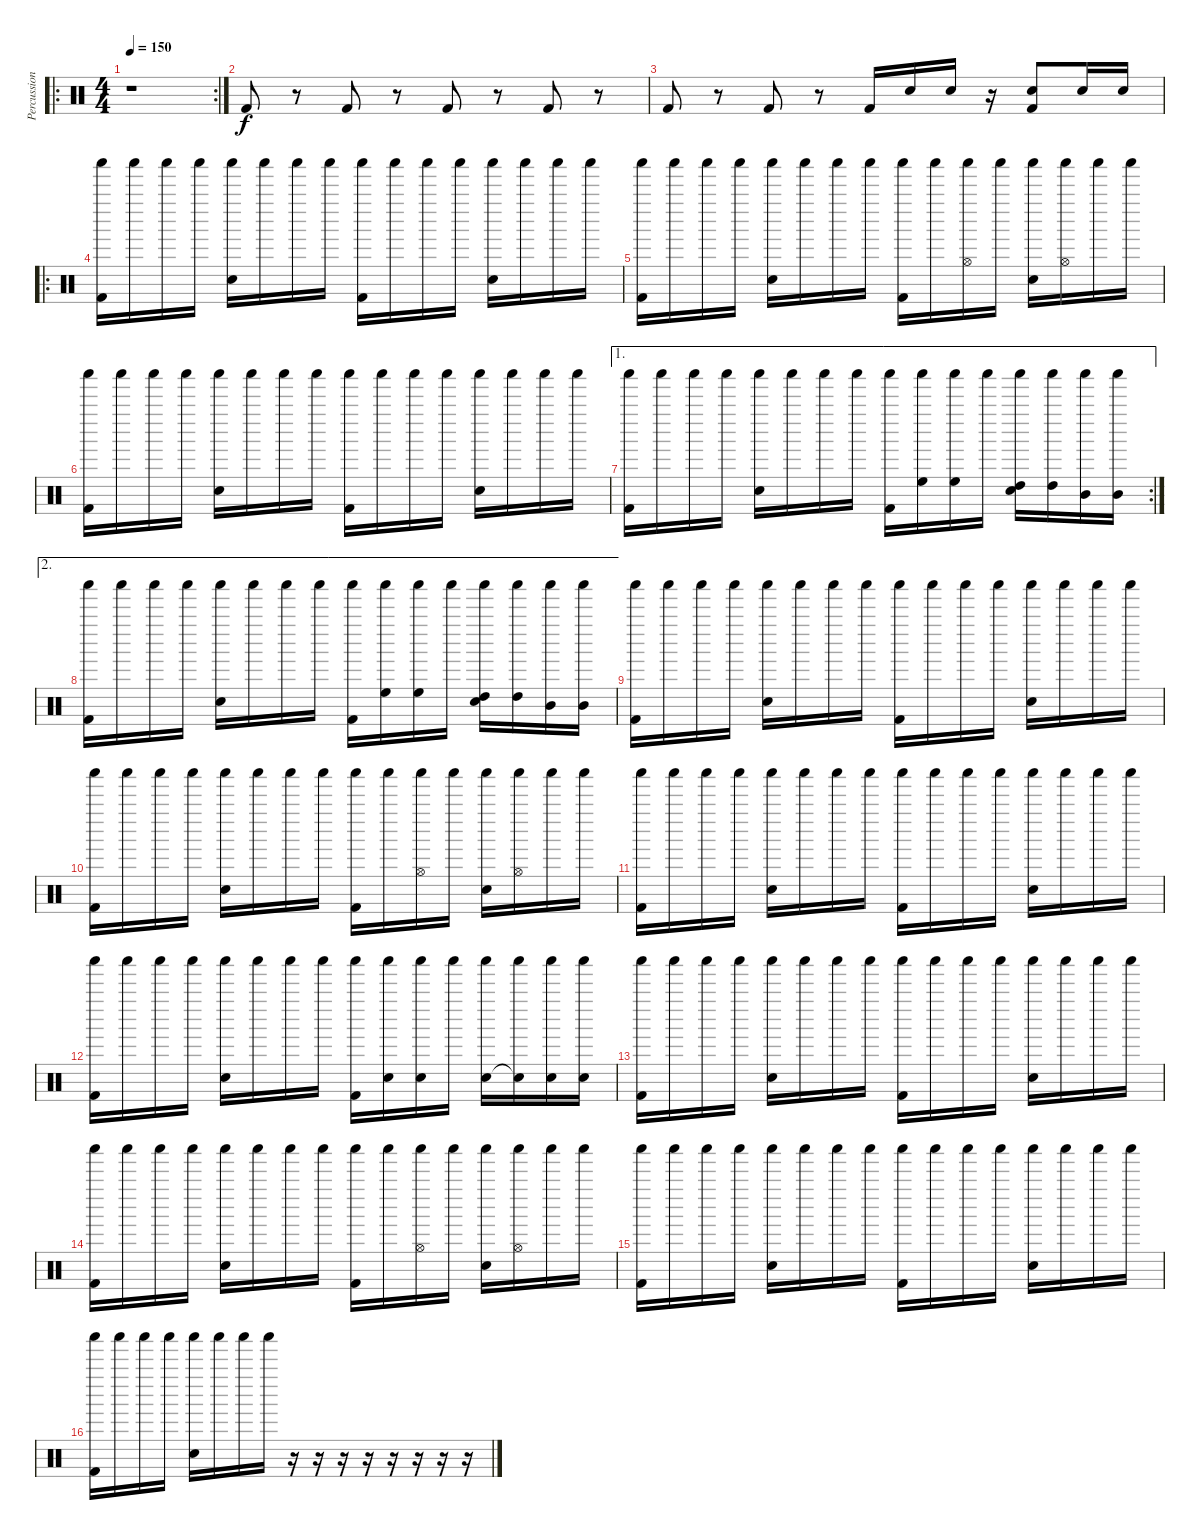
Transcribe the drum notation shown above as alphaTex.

\track ("Percussion" "Percussion") {instrument percussion}
\staff {score}
\articulation defaults
\ro
\rc 2
\ts (4 4)
\tempo 150
\clef neutral
\ks c
r.1{dy f} |
"Kick (hit) 2".8 r.8 "Kick (hit) 2".8 r.8 "Kick (hit) 2".8 r.8 "Kick (hit) 2".8 r.8 |
"Kick (hit) 2".8 r.8 "Kick (hit) 2".8 r.8 "Kick (hit) 2".16 "Snare (hit) 2".16 "Snare (hit) 2".16 r.16 ("Snare (hit) 2" "Kick (hit) 2").8 "Snare (hit) 2".16 "Snare (hit) 2".16 |
\ro
("Shaker (hit)" "Kick (hit) 2").16 "Shaker (hit)".16 "Shaker (hit)".16 "Shaker (hit)".16 ("Shaker (hit)" "Snare (hit) 2").16 "Shaker (hit)".16 "Shaker (hit)".16 "Shaker (hit)".16 ("Shaker (hit)" "Kick (hit) 2").16 "Shaker (hit)".16 "Shaker (hit)".16 "Shaker (hit)".16 ("Shaker (hit)" "Snare (hit) 2").16 "Shaker (hit)".16 "Shaker (hit)".16 "Shaker (hit)".16 |
("Shaker (hit)" "Kick (hit) 2").16 "Shaker (hit)".16 "Shaker (hit)".16 "Shaker (hit)".16 ("Shaker (hit)" "Snare (hit) 2").16 "Shaker (hit)".16 "Shaker (hit)".16 "Shaker (hit)".16 ("Shaker (hit)" "Kick (hit) 2").16 "Shaker (hit)".16 ("Shaker (hit)" "Hi-Hat (open)").16 "Shaker (hit)".16 ("Shaker (hit)" "Snare (hit) 2").16 ("Shaker (hit)" "Hi-Hat (open)").16 "Shaker (hit)".16 "Shaker (hit)".16 |
("Shaker (hit)" "Kick (hit) 2").16 "Shaker (hit)".16 "Shaker (hit)".16 "Shaker (hit)".16 ("Shaker (hit)" "Snare (hit) 2").16 "Shaker (hit)".16 "Shaker (hit)".16 "Shaker (hit)".16 ("Shaker (hit)" "Kick (hit) 2").16 "Shaker (hit)".16 "Shaker (hit)".16 "Shaker (hit)".16 ("Shaker (hit)" "Snare (hit) 2").16 "Shaker (hit)".16 "Shaker (hit)".16 "Shaker (hit)".16 |
\ae 1
\rc 2
("Shaker (hit)" "Kick (hit) 2").16 "Shaker (hit)".16 "Shaker (hit)".16 "Shaker (hit)".16 ("Shaker (hit)" "Snare (hit) 2").16 "Shaker (hit)".16 "Shaker (hit)".16 "Shaker (hit)".16 ("Shaker (hit)" "Kick (hit) 2").16 ("Shaker (hit)" "High Floor Tom (hit)").16 ("Shaker (hit)" "High Floor Tom (hit)").16 "Shaker (hit)".16 ("Shaker (hit)" "High Tom (hit)" "Snare (hit) 2").16 ("Shaker (hit)" "High Tom (hit)").16 ("Shaker (hit)" "Mid Tom (hit)").16 ("Shaker (hit)" "Mid Tom (hit)").16 |
\ae 2
("Shaker (hit)" "Kick (hit) 2").16 "Shaker (hit)".16 "Shaker (hit)".16 "Shaker (hit)".16 ("Shaker (hit)" "Snare (hit) 2").16 "Shaker (hit)".16 "Shaker (hit)".16 "Shaker (hit)".16 ("Shaker (hit)" "Kick (hit) 2").16 ("Shaker (hit)" "High Floor Tom (hit)").16 ("Shaker (hit)" "High Floor Tom (hit)").16 "Shaker (hit)".16 ("Shaker (hit)" "High Tom (hit)" "Snare (hit) 2").16 ("Shaker (hit)" "High Tom (hit)").16 ("Shaker (hit)" "Mid Tom (hit)").16 ("Shaker (hit)" "Mid Tom (hit)").16 |
("Shaker (hit)" "Kick (hit) 2").16 "Shaker (hit)".16 "Shaker (hit)".16 "Shaker (hit)".16 ("Shaker (hit)" "Snare (hit) 2").16 "Shaker (hit)".16 "Shaker (hit)".16 "Shaker (hit)".16 ("Shaker (hit)" "Kick (hit) 2").16 "Shaker (hit)".16 "Shaker (hit)".16 "Shaker (hit)".16 ("Shaker (hit)" "Snare (hit) 2").16 "Shaker (hit)".16 "Shaker (hit)".16 "Shaker (hit)".16 |
("Shaker (hit)" "Kick (hit) 2").16 "Shaker (hit)".16 "Shaker (hit)".16 "Shaker (hit)".16 ("Shaker (hit)" "Snare (hit) 2").16 "Shaker (hit)".16 "Shaker (hit)".16 "Shaker (hit)".16 ("Shaker (hit)" "Kick (hit) 2").16 "Shaker (hit)".16 ("Shaker (hit)" "Hi-Hat (open)").16 "Shaker (hit)".16 ("Shaker (hit)" "Snare (hit) 2").16 ("Shaker (hit)" "Hi-Hat (open)").16 "Shaker (hit)".16 "Shaker (hit)".16 |
("Shaker (hit)" "Kick (hit) 2").16 "Shaker (hit)".16 "Shaker (hit)".16 "Shaker (hit)".16 ("Shaker (hit)" "Snare (hit) 2").16 "Shaker (hit)".16 "Shaker (hit)".16 "Shaker (hit)".16 ("Shaker (hit)" "Kick (hit) 2").16 "Shaker (hit)".16 "Shaker (hit)".16 "Shaker (hit)".16 ("Shaker (hit)" "Snare (hit) 2").16 "Shaker (hit)".16 "Shaker (hit)".16 "Shaker (hit)".16 |
("Shaker (hit)" "Kick (hit) 2").16 "Shaker (hit)".16 "Shaker (hit)".16 "Shaker (hit)".16 ("Shaker (hit)" "Snare (hit) 2").16 "Shaker (hit)".16 "Shaker (hit)".16 "Shaker (hit)".16 ("Shaker (hit)" "Kick (hit) 2").16 ("Shaker (hit)" "Snare (hit) 2").16 ("Shaker (hit)" "Snare (hit) 2").16 "Shaker (hit)".16 ("Shaker (hit)" "Snare (hit) 2").16 ("Shaker (hit)" "Snare (hit) 2"{t}).16 ("Shaker (hit)" "Snare (hit) 2").16 ("Shaker (hit)" "Snare (hit) 2").16 |
("Shaker (hit)" "Kick (hit) 2").16 "Shaker (hit)".16 "Shaker (hit)".16 "Shaker (hit)".16 ("Shaker (hit)" "Snare (hit) 2").16 "Shaker (hit)".16 "Shaker (hit)".16 "Shaker (hit)".16 ("Shaker (hit)" "Kick (hit) 2").16 "Shaker (hit)".16 "Shaker (hit)".16 "Shaker (hit)".16 ("Shaker (hit)" "Snare (hit) 2").16 "Shaker (hit)".16 "Shaker (hit)".16 "Shaker (hit)".16 |
("Shaker (hit)" "Kick (hit) 2").16 "Shaker (hit)".16 "Shaker (hit)".16 "Shaker (hit)".16 ("Shaker (hit)" "Snare (hit) 2").16 "Shaker (hit)".16 "Shaker (hit)".16 "Shaker (hit)".16 ("Shaker (hit)" "Kick (hit) 2").16 "Shaker (hit)".16 ("Shaker (hit)" "Hi-Hat (open)").16 "Shaker (hit)".16 ("Shaker (hit)" "Snare (hit) 2").16 ("Shaker (hit)" "Hi-Hat (open)").16 "Shaker (hit)".16 "Shaker (hit)".16 |
("Shaker (hit)" "Kick (hit) 2").16 "Shaker (hit)".16 "Shaker (hit)".16 "Shaker (hit)".16 ("Shaker (hit)" "Snare (hit) 2").16 "Shaker (hit)".16 "Shaker (hit)".16 "Shaker (hit)".16 ("Shaker (hit)" "Kick (hit) 2").16 "Shaker (hit)".16 "Shaker (hit)".16 "Shaker (hit)".16 ("Shaker (hit)" "Snare (hit) 2").16 "Shaker (hit)".16 "Shaker (hit)".16 "Shaker (hit)".16 |
("Shaker (hit)" "Kick (hit) 2").16 "Shaker (hit)".16 "Shaker (hit)".16 "Shaker (hit)".16 ("Shaker (hit)" "Snare (hit) 2").16 "Shaker (hit)".16 "Shaker (hit)".16 "Shaker (hit)".16 r.16 r.16 r.16 r.16 r.16 r.16 r.16 r.16
